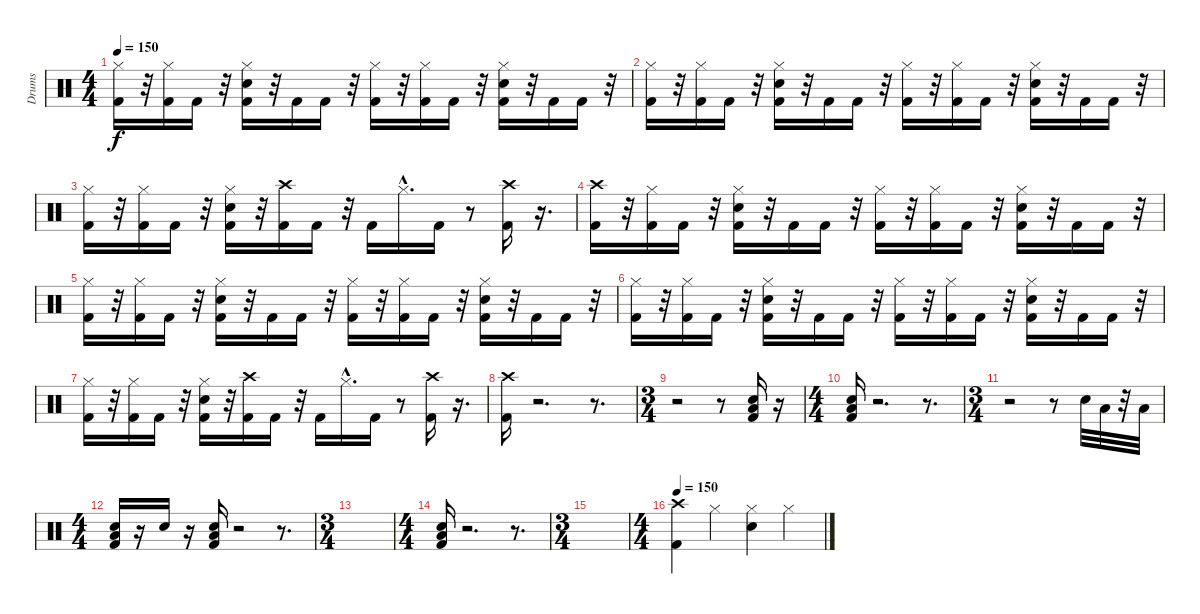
\track ("Drums" "Drums") {instrument percussion}
\staff {score}
\articulation defaults
\ts (4 4)
\tempo 150
\clef neutral
\ks c
("Hi-Hat (closed)" "Kick (hit) 2").16{dy f} r.32 ("Hi-Hat (closed)" "Kick (hit) 2").16 "Kick (hit) 2".16 r.32 ("Hi-Hat (closed)" "Electric Snare (hit)" "Kick (hit) 2").16 r.32 "Kick (hit) 2".16 "Kick (hit) 2".16 r.32 ("Hi-Hat (closed)" "Kick (hit) 2").16 r.32 ("Hi-Hat (closed)" "Kick (hit) 2").16 "Kick (hit) 2".16 r.32 ("Hi-Hat (closed)" "Electric Snare (hit)" "Kick (hit) 2").16 r.32 "Kick (hit) 2".16 "Kick (hit) 2".16 r.32 |
("Hi-Hat (closed)" "Kick (hit) 2").16 r.32 ("Hi-Hat (closed)" "Kick (hit) 2").16 "Kick (hit) 2".16 r.32 ("Hi-Hat (closed)" "Electric Snare (hit)" "Kick (hit) 2").16 r.32 "Kick (hit) 2".16 "Kick (hit) 2".16 r.32 ("Hi-Hat (closed)" "Kick (hit) 2").16 r.32 ("Hi-Hat (closed)" "Kick (hit) 2").16 "Kick (hit) 2".16 r.32 ("Hi-Hat (closed)" "Electric Snare (hit)" "Kick (hit) 2").16 r.32 "Kick (hit) 2".16 "Kick (hit) 2".16 r.32 |
("Hi-Hat (closed)" "Kick (hit) 2").16 r.32 ("Hi-Hat (closed)" "Kick (hit) 2").16 "Kick (hit) 2".16 r.32 ("Hi-Hat (closed)" "Electric Snare (hit)" "Kick (hit) 2").16 r.32 ("Crash high (hit)" "Kick (hit) 2").16 "Kick (hit) 2".16 r.32 "Kick (hit) 2".16 "Hi-Hat (closed)"{hac}.16{d} "Kick (hit) 2".16 r.8 ("Crash high (hit)" "Kick (hit) 2").16 r.16{d} |
("Crash high (hit)" "Kick (hit) 2").16 r.32 ("Hi-Hat (closed)" "Kick (hit) 2").16 "Kick (hit) 2".16 r.32 ("Hi-Hat (closed)" "Electric Snare (hit)" "Kick (hit) 2").16 r.32 "Kick (hit) 2".16 "Kick (hit) 2".16 r.32 ("Hi-Hat (closed)" "Kick (hit) 2").16 r.32 ("Hi-Hat (closed)" "Kick (hit) 2").16 "Kick (hit) 2".16 r.32 ("Hi-Hat (closed)" "Electric Snare (hit)" "Kick (hit) 2").16 r.32 "Kick (hit) 2".16 "Kick (hit) 2".16 r.32 |
("Hi-Hat (closed)" "Kick (hit) 2").16 r.32 ("Hi-Hat (closed)" "Kick (hit) 2").16 "Kick (hit) 2".16 r.32 ("Hi-Hat (closed)" "Electric Snare (hit)" "Kick (hit) 2").16 r.32 "Kick (hit) 2".16 "Kick (hit) 2".16 r.32 ("Hi-Hat (closed)" "Kick (hit) 2").16 r.32 ("Hi-Hat (closed)" "Kick (hit) 2").16 "Kick (hit) 2".16 r.32 ("Hi-Hat (closed)" "Electric Snare (hit)" "Kick (hit) 2").16 r.32 "Kick (hit) 2".16 "Kick (hit) 2".16 r.32 |
("Hi-Hat (closed)" "Kick (hit) 2").16 r.32 ("Hi-Hat (closed)" "Kick (hit) 2").16 "Kick (hit) 2".16 r.32 ("Hi-Hat (closed)" "Electric Snare (hit)" "Kick (hit) 2").16 r.32 "Kick (hit) 2".16 "Kick (hit) 2".16 r.32 ("Hi-Hat (closed)" "Kick (hit) 2").16 r.32 ("Hi-Hat (closed)" "Kick (hit) 2").16 "Kick (hit) 2".16 r.32 ("Hi-Hat (closed)" "Electric Snare (hit)" "Kick (hit) 2").16 r.32 "Kick (hit) 2".16 "Kick (hit) 2".16 r.32 |
("Hi-Hat (closed)" "Kick (hit) 2").16 r.32 ("Hi-Hat (closed)" "Kick (hit) 2").16 "Kick (hit) 2".16 r.32 ("Hi-Hat (closed)" "Electric Snare (hit)" "Kick (hit) 2").16 r.32 ("Crash high (hit)" "Kick (hit) 2").16 "Kick (hit) 2".16 r.32 "Kick (hit) 2".16 "Hi-Hat (closed)"{hac}.16{d} "Kick (hit) 2".16 r.8 ("Crash high (hit)" "Kick (hit) 2").16 r.16{d} |
("Crash high (hit)" "Kick (hit) 2").16 r.2{d} r.8{d} |
\ts (3 4)
r.2 r.8 ("Low Floor Tom (hit)" "Electric Snare (hit)" "Kick (hit) 2").16 r.16 |
\ts (4 4)
("Low Floor Tom (hit)" "Electric Snare (hit)" "Kick (hit) 2").16 r.2{d} r.8{d} |
\ts (3 4)
r.2 r.8 "Electric Snare (hit)".32 "Low Tom (hit)".32 r.32 "Low Floor Tom (hit)".32 |
\ts (4 4)
("Low Floor Tom (hit)" "Electric Snare (hit)" "Kick (hit) 2").16 r.16 "Electric Snare (hit)".16 r.16 ("Low Floor Tom (hit)" "Electric Snare (hit)" "Kick (hit) 2").16 r.2 r.8{d} |
\ts (3 4)
|
\ts (4 4)
("Low Floor Tom (hit)" "Electric Snare (hit)" "Kick (hit) 2").16 r.2{d} r.8{d} |
\ts (3 4)
|
\ts (4 4)
\tempo 150
("Crash high (hit)" "Kick (hit) 2").4 "Hi-Hat (closed)".4 ("Hi-Hat (closed)" "Electric Snare (hit)").4 "Hi-Hat (closed)".4
